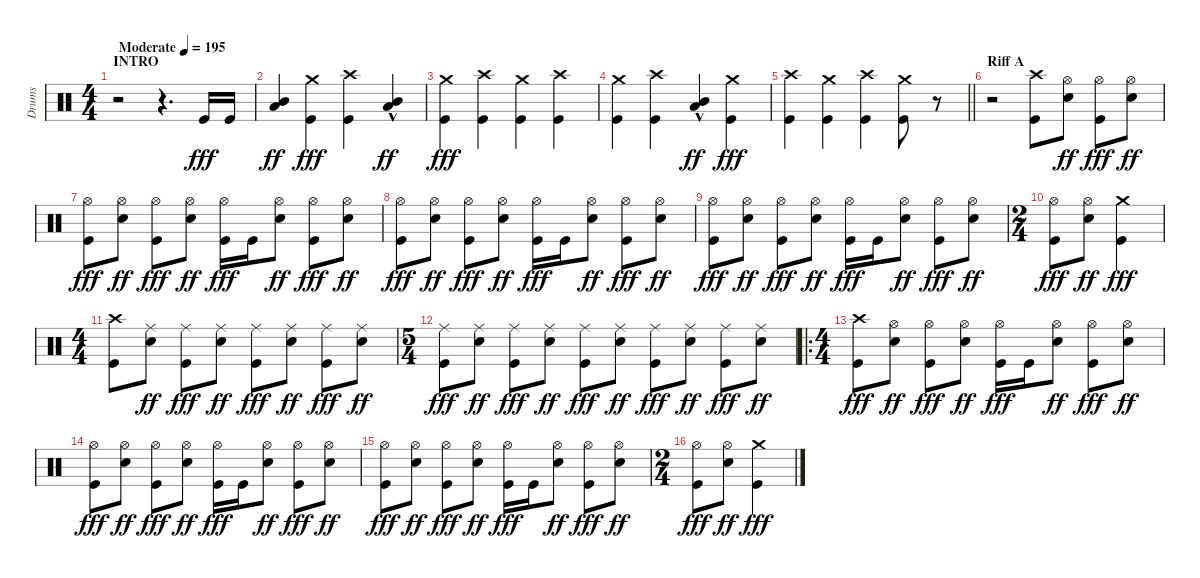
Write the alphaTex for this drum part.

\track ("Drums" "Drums") {instrument percussion}
\staff {score}
\articulation defaults
\ts (4 4)
\section ("" "INTRO")
\tempo (195 "Moderate")
\clef neutral
\ks c
r.2{dy fff} r.4{d} "Kick (hit)".16 "Kick (hit)".16 |
("Mid Tom (hit)" "Low Tom (hit)").4{dy ff} ("Crash medium (hit)" "Kick (hit)").4{dy fff} ("Crash high (hit)" "Kick (hit)").4 ("Mid Tom (hit)"{hac} "Low Tom (hit)"{hac}).4{dy ff} |
("Crash medium (hit)" "Kick (hit)").4{dy fff} ("Crash high (hit)" "Kick (hit)").4 ("Crash medium (hit)" "Kick (hit)").4 ("Crash high (hit)" "Kick (hit)").4 |
("Crash medium (hit)" "Kick (hit)").4 ("Crash high (hit)" "Kick (hit)").4 ("Mid Tom (hit)"{hac} "Low Tom (hit)"{hac}).4{dy ff} ("Crash medium (hit)" "Kick (hit)").4{dy fff} |
\barLineRight lightlight
("Crash high (hit)" "Kick (hit)").4 ("Crash medium (hit)" "Kick (hit)").4 ("Crash high (hit)" "Kick (hit)").4 ("Crash medium (hit)" "Kick (hit)").8 r.8{volume 0} |
\section ("" "Riff A")
r.2 ("Crash high (hit)" "Kick (hit)").8{volume 13} ("Hi-Hat (open)" "Electric Snare (hit)").8{dy ff} ("Hi-Hat (open)" "Kick (hit)").8{dy fff} ("Hi-Hat (open)" "Electric Snare (hit)").8{dy ff} |
("Hi-Hat (open)" "Kick (hit)").8{dy fff} ("Hi-Hat (open)" "Electric Snare (hit)").8{dy ff} ("Hi-Hat (open)" "Kick (hit)").8{dy fff} ("Hi-Hat (open)" "Electric Snare (hit)").8{dy ff} ("Hi-Hat (open)" "Kick (hit)").16{dy fff} "Kick (hit)".16 ("Hi-Hat (open)" "Electric Snare (hit)").8{dy ff} ("Hi-Hat (open)" "Kick (hit)").8{dy fff} ("Hi-Hat (open)" "Electric Snare (hit)").8{dy ff} |
("Hi-Hat (open)" "Kick (hit)").8{dy fff} ("Hi-Hat (open)" "Electric Snare (hit)").8{dy ff} ("Hi-Hat (open)" "Kick (hit)").8{dy fff} ("Hi-Hat (open)" "Electric Snare (hit)").8{dy ff} ("Hi-Hat (open)" "Kick (hit)").16{dy fff} "Kick (hit)".16 ("Hi-Hat (open)" "Electric Snare (hit)").8{dy ff} ("Hi-Hat (open)" "Kick (hit)").8{dy fff} ("Hi-Hat (open)" "Electric Snare (hit)").8{dy ff} |
("Hi-Hat (open)" "Kick (hit)").8{dy fff} ("Hi-Hat (open)" "Electric Snare (hit)").8{dy ff} ("Hi-Hat (open)" "Kick (hit)").8{dy fff} ("Hi-Hat (open)" "Electric Snare (hit)").8{dy ff} ("Hi-Hat (open)" "Kick (hit)").16{dy fff} "Kick (hit)".16 ("Hi-Hat (open)" "Electric Snare (hit)").8{dy ff} ("Hi-Hat (open)" "Kick (hit)").8{dy fff} ("Hi-Hat (open)" "Electric Snare (hit)").8{dy ff} |
\ts (2 4)
("Hi-Hat (open)" "Kick (hit)").8{dy fff} ("Hi-Hat (open)" "Electric Snare (hit)").8{dy ff} ("Crash medium (hit)" "Kick (hit)").4{dy fff} |
\ts (4 4)
("Crash high (hit)" "Kick (hit)").8 ("Ride (middle)" "Electric Snare (hit)").8{dy ff} ("Ride (middle)" "Kick (hit)").8{dy fff} ("Ride (middle)" "Electric Snare (hit)").8{dy ff} ("Ride (middle)" "Kick (hit)").8{dy fff} ("Ride (middle)" "Electric Snare (hit)").8{dy ff} ("Ride (middle)" "Kick (hit)").8{dy fff} ("Ride (middle)" "Electric Snare (hit)").8{dy ff} |
\ts (5 4)
("Ride (middle)" "Kick (hit)").8{dy fff} ("Ride (middle)" "Electric Snare (hit)").8{dy ff} ("Ride (middle)" "Kick (hit)").8{dy fff} ("Ride (middle)" "Electric Snare (hit)").8{dy ff} ("Ride (middle)" "Kick (hit)").8{dy fff} ("Ride (middle)" "Electric Snare (hit)").8{dy ff} ("Ride (middle)" "Kick (hit)").8{dy fff} ("Ride (middle)" "Electric Snare (hit)").8{dy ff} ("Ride (middle)" "Kick (hit)").8{dy fff} ("Ride (middle)" "Electric Snare (hit)").8{dy ff} |
\ro
\ts (4 4)
("Crash high (hit)" "Kick (hit)").8{dy fff} ("Hi-Hat (open)" "Electric Snare (hit)").8{dy ff} ("Hi-Hat (open)" "Kick (hit)").8{dy fff} ("Hi-Hat (open)" "Electric Snare (hit)").8{dy ff} ("Hi-Hat (open)" "Kick (hit)").16{dy fff} "Kick (hit)".16 ("Hi-Hat (open)" "Electric Snare (hit)").8{dy ff} ("Hi-Hat (open)" "Kick (hit)").8{dy fff} ("Hi-Hat (open)" "Electric Snare (hit)").8{dy ff} |
("Hi-Hat (open)" "Kick (hit)").8{dy fff} ("Hi-Hat (open)" "Electric Snare (hit)").8{dy ff} ("Hi-Hat (open)" "Kick (hit)").8{dy fff} ("Hi-Hat (open)" "Electric Snare (hit)").8{dy ff} ("Hi-Hat (open)" "Kick (hit)").16{dy fff} "Kick (hit)".16 ("Hi-Hat (open)" "Electric Snare (hit)").8{dy ff} ("Hi-Hat (open)" "Kick (hit)").8{dy fff} ("Hi-Hat (open)" "Electric Snare (hit)").8{dy ff} |
("Hi-Hat (open)" "Kick (hit)").8{dy fff} ("Hi-Hat (open)" "Electric Snare (hit)").8{dy ff} ("Hi-Hat (open)" "Kick (hit)").8{dy fff} ("Hi-Hat (open)" "Electric Snare (hit)").8{dy ff} ("Hi-Hat (open)" "Kick (hit)").16{dy fff} "Kick (hit)".16 ("Hi-Hat (open)" "Electric Snare (hit)").8{dy ff} ("Hi-Hat (open)" "Kick (hit)").8{dy fff} ("Hi-Hat (open)" "Electric Snare (hit)").8{dy ff} |
\ts (2 4)
("Hi-Hat (open)" "Kick (hit)").8{dy fff} ("Hi-Hat (open)" "Electric Snare (hit)").8{dy ff} ("Crash medium (hit)" "Kick (hit)").4{dy fff}
